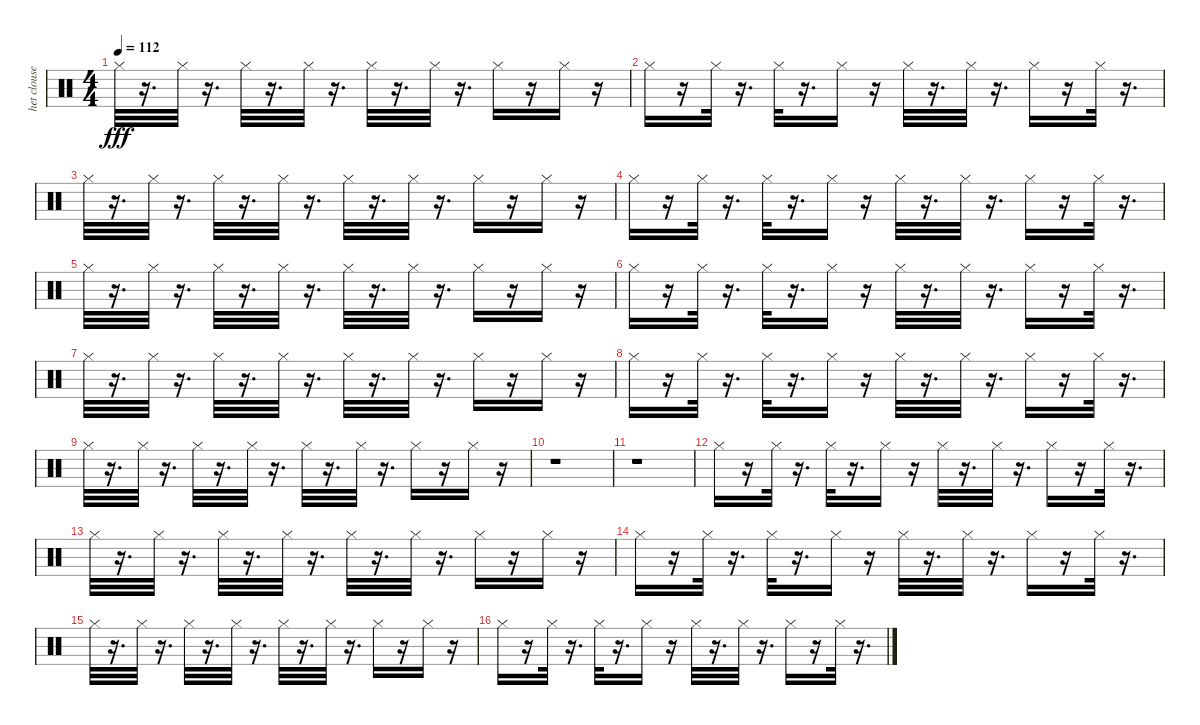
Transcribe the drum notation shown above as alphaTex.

\track ("het cloused" "het clouse") {instrument percussion}
\staff {score}
\articulation defaults
\ts (4 4)
\tempo 112
\clef neutral
\ks c "Hi-Hat (closed)".32{dy fff}
r.16{d} "Hi-Hat (closed)".32 r.16{d} "Hi-Hat (closed)".32 r.16{d} "Hi-Hat (closed)".32 r.16{d} "Hi-Hat (closed)".32 r.16{d} "Hi-Hat (closed)".32 r.16{d} "Hi-Hat (closed)".16 r.16 "Hi-Hat (closed)".16 r.16 |
"Hi-Hat (closed)".16 r.16 "Hi-Hat (closed)".32 r.16{d} "Hi-Hat (closed)".32 r.16{d} "Hi-Hat (closed)".16 r.16 "Hi-Hat (closed)".32 r.16{d} "Hi-Hat (closed)".32 r.16{d} "Hi-Hat (closed)".16 r.16 "Hi-Hat (closed)".32 r.16{d} |
"Hi-Hat (closed)".32 r.16{d} "Hi-Hat (closed)".32 r.16{d} "Hi-Hat (closed)".32 r.16{d} "Hi-Hat (closed)".32 r.16{d} "Hi-Hat (closed)".32 r.16{d} "Hi-Hat (closed)".32 r.16{d} "Hi-Hat (closed)".16 r.16 "Hi-Hat (closed)".16 r.16 |
"Hi-Hat (closed)".16 r.16 "Hi-Hat (closed)".32 r.16{d} "Hi-Hat (closed)".32 r.16{d} "Hi-Hat (closed)".16 r.16 "Hi-Hat (closed)".32 r.16{d} "Hi-Hat (closed)".32 r.16{d} "Hi-Hat (closed)".16 r.16 "Hi-Hat (closed)".32 r.16{d} |
"Hi-Hat (closed)".32 r.16{d} "Hi-Hat (closed)".32 r.16{d} "Hi-Hat (closed)".32 r.16{d} "Hi-Hat (closed)".32 r.16{d} "Hi-Hat (closed)".32 r.16{d} "Hi-Hat (closed)".32 r.16{d} "Hi-Hat (closed)".16 r.16 "Hi-Hat (closed)".16 r.16 |
"Hi-Hat (closed)".16 r.16 "Hi-Hat (closed)".32 r.16{d} "Hi-Hat (closed)".32 r.16{d} "Hi-Hat (closed)".16 r.16 "Hi-Hat (closed)".32 r.16{d} "Hi-Hat (closed)".32 r.16{d} "Hi-Hat (closed)".16 r.16 "Hi-Hat (closed)".32 r.16{d} |
"Hi-Hat (closed)".32 r.16{d} "Hi-Hat (closed)".32 r.16{d} "Hi-Hat (closed)".32 r.16{d} "Hi-Hat (closed)".32 r.16{d} "Hi-Hat (closed)".32 r.16{d} "Hi-Hat (closed)".32 r.16{d} "Hi-Hat (closed)".16 r.16 "Hi-Hat (closed)".16 r.16 |
"Hi-Hat (closed)".16 r.16 "Hi-Hat (closed)".32 r.16{d} "Hi-Hat (closed)".32 r.16{d} "Hi-Hat (closed)".16 r.16 "Hi-Hat (closed)".32 r.16{d} "Hi-Hat (closed)".32 r.16{d} "Hi-Hat (closed)".16 r.16 "Hi-Hat (closed)".32 r.16{d} |
"Hi-Hat (closed)".32 r.16{d} "Hi-Hat (closed)".32 r.16{d} "Hi-Hat (closed)".32 r.16{d} "Hi-Hat (closed)".32 r.16{d} "Hi-Hat (closed)".32 r.16{d} "Hi-Hat (closed)".32 r.16{d} "Hi-Hat (closed)".16 r.16 "Hi-Hat (closed)".16 r.16 |
r.1 |
r.1 |
"Hi-Hat (closed)".16 r.16 "Hi-Hat (closed)".32 r.16{d} "Hi-Hat (closed)".32 r.16{d} "Hi-Hat (closed)".16 r.16 "Hi-Hat (closed)".32 r.16{d} "Hi-Hat (closed)".32 r.16{d} "Hi-Hat (closed)".16 r.16 "Hi-Hat (closed)".32 r.16{d} |
"Hi-Hat (closed)".32 r.16{d} "Hi-Hat (closed)".32 r.16{d} "Hi-Hat (closed)".32 r.16{d} "Hi-Hat (closed)".32 r.16{d} "Hi-Hat (closed)".32 r.16{d} "Hi-Hat (closed)".32 r.16{d} "Hi-Hat (closed)".16 r.16 "Hi-Hat (closed)".16 r.16 |
"Hi-Hat (closed)".16 r.16 "Hi-Hat (closed)".32 r.16{d} "Hi-Hat (closed)".32 r.16{d} "Hi-Hat (closed)".16 r.16 "Hi-Hat (closed)".32 r.16{d} "Hi-Hat (closed)".32 r.16{d} "Hi-Hat (closed)".16 r.16 "Hi-Hat (closed)".32 r.16{d} |
"Hi-Hat (closed)".32 r.16{d} "Hi-Hat (closed)".32 r.16{d} "Hi-Hat (closed)".32 r.16{d} "Hi-Hat (closed)".32 r.16{d} "Hi-Hat (closed)".32 r.16{d} "Hi-Hat (closed)".32 r.16{d} "Hi-Hat (closed)".16 r.16 "Hi-Hat (closed)".16 r.16 |
"Hi-Hat (closed)".16 r.16 "Hi-Hat (closed)".32 r.16{d} "Hi-Hat (closed)".32 r.16{d} "Hi-Hat (closed)".16 r.16 "Hi-Hat (closed)".32 r.16{d} "Hi-Hat (closed)".32 r.16{d} "Hi-Hat (closed)".16 r.16 "Hi-Hat (closed)".32 r.16{d}
